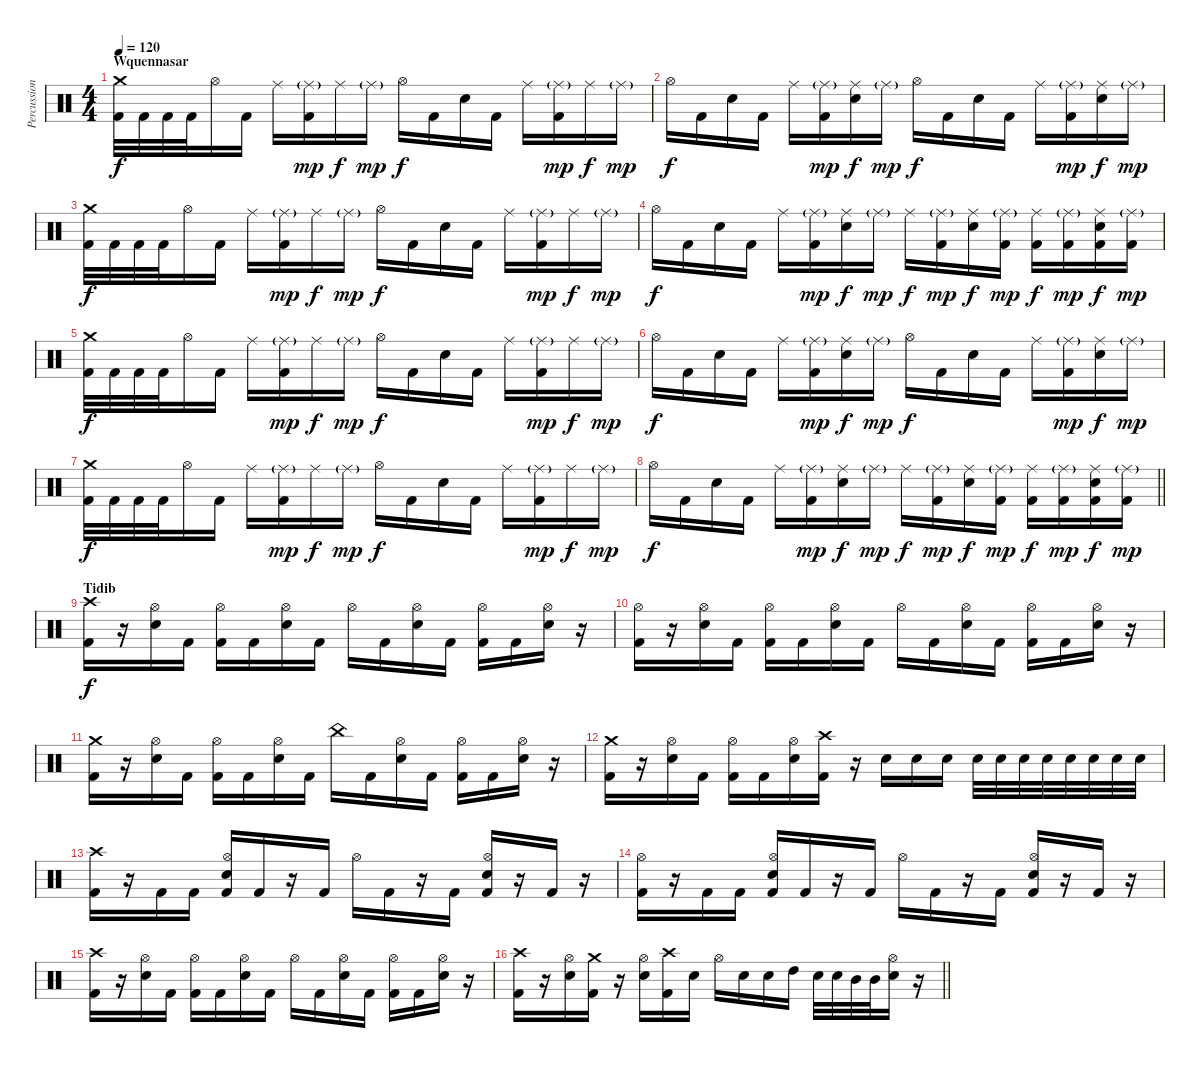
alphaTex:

\track ("Percussion" "Percussion") {instrument percussion}
\staff {score}
\articulation defaults
\ts (4 4)
\section ("" "Wquennasar")
\tempo 120
\clef neutral
\ks c
("Crash medium (hit)" "Kick (hit) 2").32{dy f} "Kick (hit) 2".32 "Kick (hit) 2".32 "Kick (hit) 2".32 "Hi-Hat (open)".16 "Kick (hit) 2".16 "Ride (middle)".16 ("Ride (middle)"{g} "Kick (hit) 2").16{dy mp} "Ride (middle)".16{dy f} "Ride (middle)"{g}.16{dy mp} "Hi-Hat (open)".16{dy f} "Kick (hit) 2".16 "Electric Snare (hit)".16 "Kick (hit) 2".16 "Ride (middle)".16 ("Ride (middle)"{g} "Kick (hit) 2").16{dy mp} "Ride (middle)".16{dy f} "Ride (middle)"{g}.16{dy mp} |
"Hi-Hat (open)".16{dy f} "Kick (hit) 2".16 "Electric Snare (hit)".16 "Kick (hit) 2".16 "Ride (middle)".16 ("Ride (middle)"{g} "Kick (hit) 2").16{dy mp} ("Ride (middle)" "Electric Snare (hit)").16{dy f} "Ride (middle)"{g}.16{dy mp} "Hi-Hat (open)".16{dy f} "Kick (hit) 2".16 "Electric Snare (hit)".16 "Kick (hit) 2".16 "Ride (middle)".16 ("Ride (middle)"{g} "Kick (hit) 2").16{dy mp} ("Ride (middle)" "Electric Snare (hit)").16{dy f} "Ride (middle)"{g}.16{dy mp} |
("Crash medium (hit)" "Kick (hit) 2").32{dy f} "Kick (hit) 2".32 "Kick (hit) 2".32 "Kick (hit) 2".32 "Hi-Hat (open)".16 "Kick (hit) 2".16 "Ride (middle)".16 ("Ride (middle)"{g} "Kick (hit) 2").16{dy mp} "Ride (middle)".16{dy f} "Ride (middle)"{g}.16{dy mp} "Hi-Hat (open)".16{dy f} "Kick (hit) 2".16 "Electric Snare (hit)".16 "Kick (hit) 2".16 "Ride (middle)".16 ("Ride (middle)"{g} "Kick (hit) 2").16{dy mp} "Ride (middle)".16{dy f} "Ride (middle)"{g}.16{dy mp} |
"Hi-Hat (open)".16{dy f} "Kick (hit) 2".16 "Electric Snare (hit)".16 "Kick (hit) 2".16 "Ride (middle)".16 ("Ride (middle)"{g} "Kick (hit) 2").16{dy mp} ("Ride (middle)" "Electric Snare (hit)").16{dy f} "Ride (middle)"{g}.16{dy mp} "Ride (middle)".16{dy f} ("Ride (middle)"{g} "Kick (hit) 2").16{dy mp} ("Ride (middle)" "Electric Snare (hit)").16{dy f} ("Ride (middle)"{g} "Kick (hit) 2").16{dy mp} ("Ride (middle)" "Kick (hit) 2").16{dy f} ("Ride (middle)"{g} "Kick (hit) 2").16{dy mp} ("Ride (middle)" "Electric Snare (hit)" "Kick (hit) 2").16{dy f} ("Ride (middle)"{g} "Kick (hit) 2").16{dy mp} |
("Crash medium (hit)" "Kick (hit) 2").32{dy f} "Kick (hit) 2".32 "Kick (hit) 2".32 "Kick (hit) 2".32 "Hi-Hat (open)".16 "Kick (hit) 2".16 "Ride (middle)".16 ("Ride (middle)"{g} "Kick (hit) 2").16{dy mp} "Ride (middle)".16{dy f} "Ride (middle)"{g}.16{dy mp} "Hi-Hat (open)".16{dy f} "Kick (hit) 2".16 "Electric Snare (hit)".16 "Kick (hit) 2".16 "Ride (middle)".16 ("Ride (middle)"{g} "Kick (hit) 2").16{dy mp} "Ride (middle)".16{dy f} "Ride (middle)"{g}.16{dy mp} |
"Hi-Hat (open)".16{dy f} "Kick (hit) 2".16 "Electric Snare (hit)".16 "Kick (hit) 2".16 "Ride (middle)".16 ("Ride (middle)"{g} "Kick (hit) 2").16{dy mp} ("Ride (middle)" "Electric Snare (hit)").16{dy f} "Ride (middle)"{g}.16{dy mp} "Hi-Hat (open)".16{dy f} "Kick (hit) 2".16 "Electric Snare (hit)".16 "Kick (hit) 2".16 "Ride (middle)".16 ("Ride (middle)"{g} "Kick (hit) 2").16{dy mp} ("Ride (middle)" "Electric Snare (hit)").16{dy f} "Ride (middle)"{g}.16{dy mp} |
("Crash medium (hit)" "Kick (hit) 2").32{dy f} "Kick (hit) 2".32 "Kick (hit) 2".32 "Kick (hit) 2".32 "Hi-Hat (open)".16 "Kick (hit) 2".16 "Ride (middle)".16 ("Ride (middle)"{g} "Kick (hit) 2").16{dy mp} "Ride (middle)".16{dy f} "Ride (middle)"{g}.16{dy mp} "Hi-Hat (open)".16{dy f} "Kick (hit) 2".16 "Electric Snare (hit)".16 "Kick (hit) 2".16 "Ride (middle)".16 ("Ride (middle)"{g} "Kick (hit) 2").16{dy mp} "Ride (middle)".16{dy f} "Ride (middle)"{g}.16{dy mp} |
\barLineRight lightlight "Hi-Hat (open)".16{dy f} "Kick (hit) 2".16 "Electric Snare (hit)".16 "Kick (hit) 2".16 "Ride (middle)".16
("Ride (middle)"{g} "Kick (hit) 2").16{dy mp} ("Ride (middle)" "Electric Snare (hit)").16{dy f} "Ride (middle)"{g}.16{dy mp} "Ride (middle)".16{dy f} ("Ride (middle)"{g} "Kick (hit) 2").16{dy mp} ("Ride (middle)" "Electric Snare (hit)").16{dy f} ("Ride (middle)"{g} "Kick (hit) 2").16{dy mp} ("Ride (middle)" "Kick (hit) 2").16{dy f} ("Ride (middle)"{g} "Kick (hit) 2").16{dy mp} ("Ride (middle)" "Electric Snare (hit)" "Kick (hit) 2").16{dy f} ("Ride (middle)"{g} "Kick (hit) 2").16{dy mp} |
\section ("" "Tidib")
("Crash high (hit)" "Kick (hit) 2").16{dy f} r.16 ("Hi-Hat (open)" "Electric Snare (hit)").16 "Kick (hit) 2".16 ("Hi-Hat (open)" "Kick (hit) 2").16 "Kick (hit) 2".16 ("Hi-Hat (open)" "Electric Snare (hit)").16 "Kick (hit) 2".16 "Hi-Hat (open)".16 "Kick (hit) 2".16 ("Hi-Hat (open)" "Electric Snare (hit)").16 "Kick (hit) 2".16 ("Hi-Hat (open)" "Kick (hit) 2").16 "Kick (hit) 2".16 ("Hi-Hat (open)" "Electric Snare (hit)").16 r.16 |
("Hi-Hat (open)" "Kick (hit) 2").16 r.16 ("Hi-Hat (open)" "Electric Snare (hit)").16 "Kick (hit) 2".16 ("Hi-Hat (open)" "Kick (hit) 2").16 "Kick (hit) 2".16 ("Hi-Hat (open)" "Electric Snare (hit)").16 "Kick (hit) 2".16 "Hi-Hat (open)".16 "Kick (hit) 2".16 ("Hi-Hat (open)" "Electric Snare (hit)").16 "Kick (hit) 2".16 ("Hi-Hat (open)" "Kick (hit) 2").16 "Kick (hit) 2".16 ("Hi-Hat (open)" "Electric Snare (hit)").16 r.16 |
("Crash medium (hit)" "Kick (hit) 2").16 r.16 ("Hi-Hat (open)" "Electric Snare (hit)").16 "Kick (hit) 2".16 ("Hi-Hat (open)" "Kick (hit) 2").16 "Kick (hit) 2".16 ("Hi-Hat (open)" "Electric Snare (hit)").16 "Kick (hit) 2".16 "China (hit)".16 "Kick (hit) 2".16 ("Hi-Hat (open)" "Electric Snare (hit)").16 "Kick (hit) 2".16 ("Hi-Hat (open)" "Kick (hit) 2").16 "Kick (hit) 2".16 ("Hi-Hat (open)" "Electric Snare (hit)").16 r.16 |
("Crash medium (hit)" "Kick (hit) 2").16 r.16 ("Hi-Hat (open)" "Electric Snare (hit)").16 "Kick (hit) 2".16 ("Hi-Hat (open)" "Kick (hit) 2").16 "Kick (hit) 2".16 ("Hi-Hat (open)" "Electric Snare (hit)").16 ("Crash high (hit)" "Kick (hit) 2").16 r.16 "Electric Snare (hit)".16 "Electric Snare (hit)".16 "Electric Snare (hit)".16 "Electric Snare (hit)".32 "Electric Snare (hit)".32 "Electric Snare (hit)".32 "Electric Snare (hit)".32 "Electric Snare (hit)".32 "Electric Snare (hit)".32 "Electric Snare (hit)".32 "Electric Snare (hit)".32 |
("Crash high (hit)" "Kick (hit) 2").16 r.16 "Kick (hit) 2".16 "Kick (hit) 2".16 ("Hi-Hat (open)" "Electric Snare (hit)" "Kick (hit) 2").16 "Kick (hit) 2".16 r.16 "Kick (hit) 2".16 "Hi-Hat (open)".16 "Kick (hit) 2".16 r.16 "Kick (hit) 2".16 ("Hi-Hat (open)" "Electric Snare (hit)" "Kick (hit) 2").16 r.16 "Kick (hit) 2".16 r.16 |
("Hi-Hat (open)" "Kick (hit) 2").16 r.16 "Kick (hit) 2".16 "Kick (hit) 2".16 ("Hi-Hat (open)" "Electric Snare (hit)" "Kick (hit) 2").16 "Kick (hit) 2".16 r.16 "Kick (hit) 2".16 "Hi-Hat (open)".16 "Kick (hit) 2".16 r.16 "Kick (hit) 2".16 ("Hi-Hat (open)" "Electric Snare (hit)" "Kick (hit) 2").16 r.16 "Kick (hit) 2".16 r.16 |
("Crash high (hit)" "Kick (hit) 2").16 r.16 ("Hi-Hat (open)" "Electric Snare (hit)").16 "Kick (hit) 2".16 ("Hi-Hat (open)" "Kick (hit) 2").16 "Kick (hit) 2".16 ("Hi-Hat (open)" "Electric Snare (hit)").16 "Kick (hit) 2".16 "Hi-Hat (open)".16 "Kick (hit) 2".16 ("Hi-Hat (open)" "Electric Snare (hit)").16 "Kick (hit) 2".16 ("Hi-Hat (open)" "Kick (hit) 2").16 "Kick (hit) 2".16 ("Hi-Hat (open)" "Electric Snare (hit)").16 r.16 |
\barLineRight lightlight
("Crash high (hit)" "Kick (hit) 2").16 r.16 ("Hi-Hat (open)" "Electric Snare (hit)").16 ("Crash medium (hit)" "Kick (hit) 2").16 r.16 ("Hi-Hat (open)" "Electric Snare (hit)").16 ("Crash high (hit)" "Kick (hit) 2").16 "Electric Snare (hit)".16 "Hi-Hat (open)".16 "Electric Snare (hit)".16 "Electric Snare (hit)".16 "High Tom (hit)".16 "Electric Snare (hit)".32 "Electric Snare (hit)".32 "Mid Tom (hit)".32 "Mid Tom (hit)".32 ("Hi-Hat (open)" "Electric Snare (hit)").16 r.16
